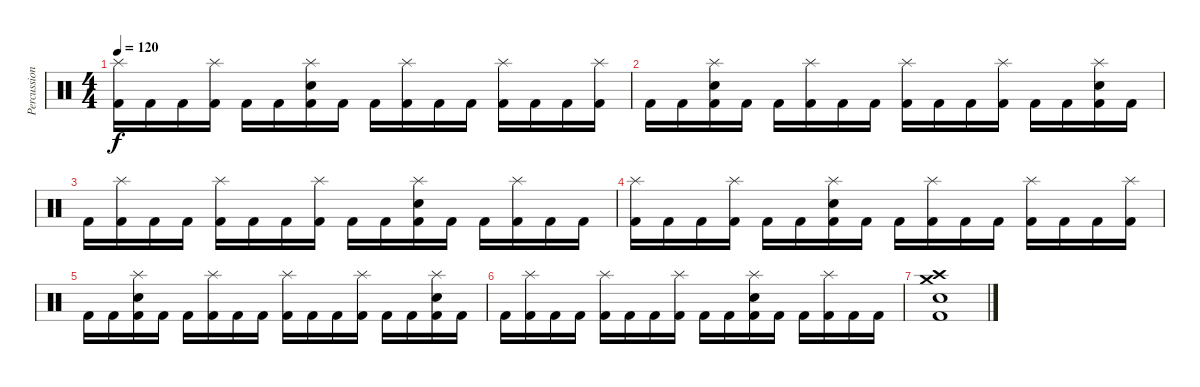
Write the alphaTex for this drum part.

\track ("Percussion" "Percussion") {instrument percussion}
\staff {score}
\articulation defaults
\ts (4 4)
\tempo 120
\clef neutral
\ks c
("Splash (hit)" "Kick (hit) 2").16{dy f} "Kick (hit) 2".16 "Kick (hit) 2".16 ("Splash (hit)" "Kick (hit) 2").16 "Kick (hit) 2".16 "Kick (hit) 2".16 ("Splash (hit)" "Snare (hit) 2" "Kick (hit) 2").16 "Kick (hit) 2".16 "Kick (hit) 2".16 ("Splash (hit)" "Kick (hit) 2").16 "Kick (hit) 2".16 "Kick (hit) 2".16 ("Splash (hit)" "Kick (hit) 2").16 "Kick (hit) 2".16 "Kick (hit) 2".16 ("Splash (hit)" "Kick (hit) 2").16 |
"Kick (hit) 2".16 "Kick (hit) 2".16 ("Splash (hit)" "Snare (hit) 2" "Kick (hit) 2").16 "Kick (hit) 2".16 "Kick (hit) 2".16 ("Splash (hit)" "Kick (hit) 2").16 "Kick (hit) 2".16 "Kick (hit) 2".16 ("Splash (hit)" "Kick (hit) 2").16 "Kick (hit) 2".16 "Kick (hit) 2".16 ("Splash (hit)" "Kick (hit) 2").16 "Kick (hit) 2".16 "Kick (hit) 2".16 ("Splash (hit)" "Snare (hit) 2" "Kick (hit) 2").16 "Kick (hit) 2".16 |
"Kick (hit) 2".16 ("Splash (hit)" "Kick (hit) 2").16 "Kick (hit) 2".16 "Kick (hit) 2".16 ("Splash (hit)" "Kick (hit) 2").16 "Kick (hit) 2".16 "Kick (hit) 2".16 ("Splash (hit)" "Kick (hit) 2").16 "Kick (hit) 2".16 "Kick (hit) 2".16 ("Splash (hit)" "Snare (hit) 2" "Kick (hit) 2").16 "Kick (hit) 2".16 "Kick (hit) 2".16 ("Splash (hit)" "Kick (hit) 2").16 "Kick (hit) 2".16 "Kick (hit) 2".16 |
("Splash (hit)" "Kick (hit) 2").16 "Kick (hit) 2".16 "Kick (hit) 2".16 ("Splash (hit)" "Kick (hit) 2").16 "Kick (hit) 2".16 "Kick (hit) 2".16 ("Splash (hit)" "Snare (hit) 2" "Kick (hit) 2").16 "Kick (hit) 2".16 "Kick (hit) 2".16 ("Splash (hit)" "Kick (hit) 2").16 "Kick (hit) 2".16 "Kick (hit) 2".16 ("Splash (hit)" "Kick (hit) 2").16 "Kick (hit) 2".16 "Kick (hit) 2".16 ("Splash (hit)" "Kick (hit) 2").16 |
"Kick (hit) 2".16 "Kick (hit) 2".16 ("Splash (hit)" "Snare (hit) 2" "Kick (hit) 2").16 "Kick (hit) 2".16 "Kick (hit) 2".16 ("Splash (hit)" "Kick (hit) 2").16 "Kick (hit) 2".16 "Kick (hit) 2".16 ("Splash (hit)" "Kick (hit) 2").16 "Kick (hit) 2".16 "Kick (hit) 2".16 ("Splash (hit)" "Kick (hit) 2").16 "Kick (hit) 2".16 "Kick (hit) 2".16 ("Splash (hit)" "Snare (hit) 2" "Kick (hit) 2").16 "Kick (hit) 2".16 |
"Kick (hit) 2".16 ("Splash (hit)" "Kick (hit) 2").16 "Kick (hit) 2".16 "Kick (hit) 2".16 ("Splash (hit)" "Kick (hit) 2").16 "Kick (hit) 2".16 "Kick (hit) 2".16 ("Splash (hit)" "Kick (hit) 2").16 "Kick (hit) 2".16 "Kick (hit) 2".16 ("Splash (hit)" "Snare (hit) 2" "Kick (hit) 2").16 "Kick (hit) 2".16 "Kick (hit) 2".16 ("Splash (hit)" "Kick (hit) 2").16 "Kick (hit) 2".16 "Kick (hit) 2".16 |
("Crash high (hit)" "Crash medium (hit)" "Snare (hit) 2" "Kick (hit) 2").1
